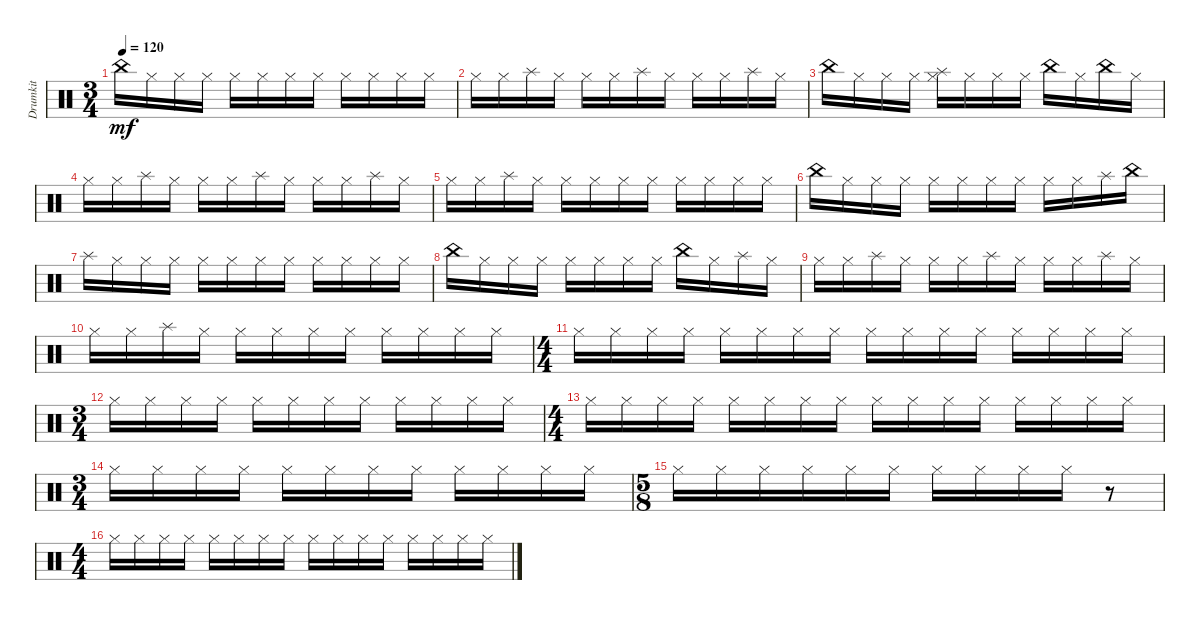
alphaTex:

\track ("Drumkit" "Drumkit") {instrument percussion}
\staff {score}
\articulation defaults
\ts (3 4)
\tempo 120
\clef neutral
\ks c "China (hit)".16{dy mf} "Hi-Hat (closed)".16 "Hi-Hat (closed)".16 "Hi-Hat (closed)".16 "Hi-Hat (closed)".16 "Hi-Hat (closed)".16 "Hi-Hat (closed)".16 "Hi-Hat (closed)".16 "Hi-Hat (closed)".16 "Hi-Hat (closed)".16 "Hi-Hat (closed)".16 "Hi-Hat (closed)".16
|
"Hi-Hat (closed)".16 "Hi-Hat (closed)".16 "Splash (hit)".16 "Hi-Hat (closed)".16 "Hi-Hat (closed)".16 "Hi-Hat (closed)".16 "Splash (hit)".16 "Hi-Hat (closed)".16 "Hi-Hat (closed)".16 "Hi-Hat (closed)".16 "Splash (hit)".16 "Hi-Hat (closed)".16 |
"China (hit)".16 "Hi-Hat (closed)".16 "Hi-Hat (closed)".16 "Hi-Hat (closed)".16 ("Hi-Hat (closed)" "Splash (hit)").16 "Hi-Hat (closed)".16 "Hi-Hat (closed)".16 "Hi-Hat (closed)".16 "China (hit)".16 "Hi-Hat (closed)".16 "China (hit)".16 "Hi-Hat (closed)".16 |
"Hi-Hat (closed)".16 "Hi-Hat (closed)".16 "Splash (hit)".16 "Hi-Hat (closed)".16 "Hi-Hat (closed)".16 "Hi-Hat (closed)".16 "Splash (hit)".16 "Hi-Hat (closed)".16 "Hi-Hat (closed)".16 "Hi-Hat (closed)".16 "Splash (hit)".16 "Hi-Hat (closed)".16 |
"Hi-Hat (closed)".16 "Hi-Hat (closed)".16 "Splash (hit)".16 "Hi-Hat (closed)".16 "Hi-Hat (closed)".16 "Hi-Hat (closed)".16 "Hi-Hat (closed)".16 "Hi-Hat (closed)".16 "Hi-Hat (closed)".16 "Hi-Hat (closed)".16 "Hi-Hat (closed)".16 "Hi-Hat (closed)".16 |
"China (hit)".16 "Hi-Hat (closed)".16 "Hi-Hat (closed)".16 "Hi-Hat (closed)".16 "Hi-Hat (closed)".16 "Hi-Hat (closed)".16 "Hi-Hat (closed)".16 "Hi-Hat (closed)".16 "Hi-Hat (closed)".16 "Hi-Hat (closed)".16 "Splash (hit)".16 "China (hit)".16 |
"Splash (hit)".16 "Hi-Hat (closed)".16 "Hi-Hat (closed)".16 "Hi-Hat (closed)".16 "Hi-Hat (closed)".16 "Hi-Hat (closed)".16 "Hi-Hat (closed)".16 "Hi-Hat (closed)".16 "Hi-Hat (closed)".16 "Hi-Hat (closed)".16 "Hi-Hat (closed)".16 "Hi-Hat (closed)".16 |
"China (hit)".16 "Hi-Hat (closed)".16 "Hi-Hat (closed)".16 "Hi-Hat (closed)".16 "Hi-Hat (closed)".16 "Hi-Hat (closed)".16 "Hi-Hat (closed)".16 "Hi-Hat (closed)".16 "China (hit)".16 "Hi-Hat (closed)".16 "Splash (hit)".16 "Hi-Hat (closed)".16 |
"Hi-Hat (closed)".16 "Hi-Hat (closed)".16 "Splash (hit)".16 "Hi-Hat (closed)".16 "Hi-Hat (closed)".16 "Hi-Hat (closed)".16 "Splash (hit)".16 "Hi-Hat (closed)".16 "Hi-Hat (closed)".16 "Hi-Hat (closed)".16 "Splash (hit)".16 "Hi-Hat (closed)".16 |
"Hi-Hat (closed)".16 "Hi-Hat (closed)".16 "Splash (hit)".16 "Hi-Hat (closed)".16 "Hi-Hat (closed)".16 "Hi-Hat (closed)".16 "Hi-Hat (closed)".16 "Hi-Hat (closed)".16 "Hi-Hat (closed)".16 "Hi-Hat (closed)".16 "Hi-Hat (closed)".16 "Hi-Hat (closed)".16 |
\ts (4 4)
"Hi-Hat (closed)".16 "Hi-Hat (closed)".16 "Hi-Hat (closed)".16 "Hi-Hat (closed)".16 "Hi-Hat (closed)".16 "Hi-Hat (closed)".16 "Hi-Hat (closed)".16 "Hi-Hat (closed)".16 "Hi-Hat (closed)".16 "Hi-Hat (closed)".16 "Hi-Hat (closed)".16 "Hi-Hat (closed)".16 "Hi-Hat (closed)".16 "Hi-Hat (closed)".16 "Hi-Hat (closed)".16 "Hi-Hat (closed)".16 |
\ts (3 4)
"Hi-Hat (closed)".16 "Hi-Hat (closed)".16 "Hi-Hat (closed)".16 "Hi-Hat (closed)".16 "Hi-Hat (closed)".16 "Hi-Hat (closed)".16 "Hi-Hat (closed)".16 "Hi-Hat (closed)".16 "Hi-Hat (closed)".16 "Hi-Hat (closed)".16 "Hi-Hat (closed)".16 "Hi-Hat (closed)".16 |
\ts (4 4)
"Hi-Hat (closed)".16 "Hi-Hat (closed)".16 "Hi-Hat (closed)".16 "Hi-Hat (closed)".16 "Hi-Hat (closed)".16 "Hi-Hat (closed)".16 "Hi-Hat (closed)".16 "Hi-Hat (closed)".16 "Hi-Hat (closed)".16 "Hi-Hat (closed)".16 "Hi-Hat (closed)".16 "Hi-Hat (closed)".16 "Hi-Hat (closed)".16 "Hi-Hat (closed)".16 "Hi-Hat (closed)".16 "Hi-Hat (closed)".16 |
\ts (3 4)
"Hi-Hat (closed)".16 "Hi-Hat (closed)".16 "Hi-Hat (closed)".16 "Hi-Hat (closed)".16 "Hi-Hat (closed)".16 "Hi-Hat (closed)".16 "Hi-Hat (closed)".16 "Hi-Hat (closed)".16 "Hi-Hat (closed)".16 "Hi-Hat (closed)".16 "Hi-Hat (closed)".16 "Hi-Hat (closed)".16 |
\ts (5 8)
"Hi-Hat (closed)".16 "Hi-Hat (closed)".16 "Hi-Hat (closed)".16 "Hi-Hat (closed)".16 "Hi-Hat (closed)".16 "Hi-Hat (closed)".16 "Hi-Hat (closed)".16 "Hi-Hat (closed)".16 "Hi-Hat (closed)".16 "Hi-Hat (closed)".16 r.8 |
\ts (4 4)
"Hi-Hat (closed)".16 "Hi-Hat (closed)".16 "Hi-Hat (closed)".16 "Hi-Hat (closed)".16 "Hi-Hat (closed)".16 "Hi-Hat (closed)".16 "Hi-Hat (closed)".16 "Hi-Hat (closed)".16 "Hi-Hat (closed)".16 "Hi-Hat (closed)".16 "Hi-Hat (closed)".16 "Hi-Hat (closed)".16 "Hi-Hat (closed)".16 "Hi-Hat (closed)".16 "Hi-Hat (closed)".16 "Hi-Hat (closed)".16
